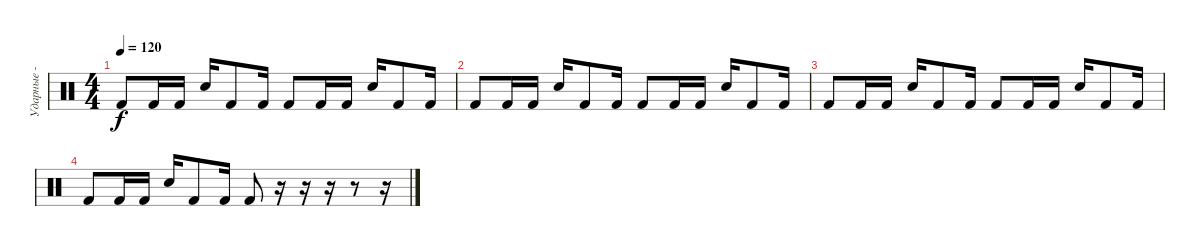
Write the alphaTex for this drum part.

\track ("Ударные - 1" "Ударные - ") {instrument percussion}
\staff {score}
\articulation defaults
\ts (4 4)
\tempo 120
\clef neutral
\ks c "Kick (hit) 2".8{dy f} "Kick (hit) 2".16 "Kick (hit) 2".16 "Electric Snare (hit)".16 "Kick (hit) 2".8 "Kick (hit) 2".16 "Kick (hit) 2".8 "Kick (hit) 2".16 "Kick (hit) 2".16 "Electric Snare (hit)".16 "Kick (hit) 2".8 "Kick (hit) 2".16
|
"Kick (hit) 2".8 "Kick (hit) 2".16 "Kick (hit) 2".16 "Electric Snare (hit)".16 "Kick (hit) 2".8 "Kick (hit) 2".16 "Kick (hit) 2".8 "Kick (hit) 2".16 "Kick (hit) 2".16 "Electric Snare (hit)".16 "Kick (hit) 2".8 "Kick (hit) 2".16 |
"Kick (hit) 2".8 "Kick (hit) 2".16 "Kick (hit) 2".16 "Electric Snare (hit)".16 "Kick (hit) 2".8 "Kick (hit) 2".16 "Kick (hit) 2".8 "Kick (hit) 2".16 "Kick (hit) 2".16 "Electric Snare (hit)".16 "Kick (hit) 2".8 "Kick (hit) 2".16 |
"Kick (hit) 2".8 "Kick (hit) 2".16 "Kick (hit) 2".16 "Electric Snare (hit)".16 "Kick (hit) 2".8 "Kick (hit) 2".16 "Kick (hit) 2".8 r.16 r.16 r.16 r.8 r.16
